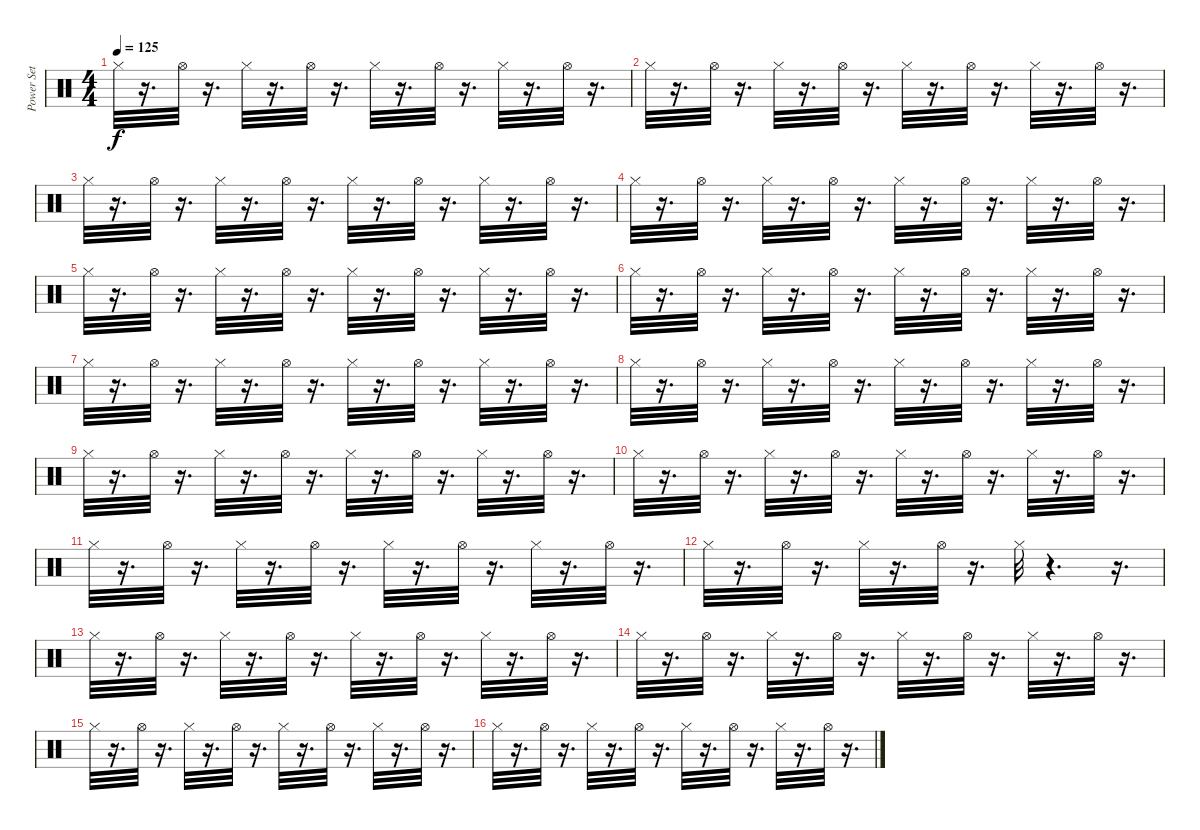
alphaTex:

\track ("Power Set" "Power Set") {instrument percussion}
\staff {score}
\articulation defaults
\ts (4 4)
\tempo 125
\clef neutral
\ks c "Hi-Hat (closed)".32{dy f}
r.16{d} "Hi-Hat (open)".32 r.16{d} "Hi-Hat (closed)".32 r.16{d} "Hi-Hat (open)".32 r.16{d} "Hi-Hat (closed)".32 r.16{d} "Hi-Hat (open)".32 r.16{d} "Hi-Hat (closed)".32 r.16{d} "Hi-Hat (open)".32 r.16{d} |
"Hi-Hat (closed)".32 r.16{d} "Hi-Hat (open)".32 r.16{d} "Hi-Hat (closed)".32 r.16{d} "Hi-Hat (open)".32 r.16{d} "Hi-Hat (closed)".32 r.16{d} "Hi-Hat (open)".32 r.16{d} "Hi-Hat (closed)".32 r.16{d} "Hi-Hat (open)".32 r.16{d} |
"Hi-Hat (closed)".32 r.16{d} "Hi-Hat (open)".32 r.16{d} "Hi-Hat (closed)".32 r.16{d} "Hi-Hat (open)".32 r.16{d} "Hi-Hat (closed)".32 r.16{d} "Hi-Hat (open)".32 r.16{d} "Hi-Hat (closed)".32 r.16{d} "Hi-Hat (open)".32 r.16{d} |
"Hi-Hat (closed)".32 r.16{d} "Hi-Hat (open)".32 r.16{d} "Hi-Hat (closed)".32 r.16{d} "Hi-Hat (open)".32 r.16{d} "Hi-Hat (closed)".32 r.16{d} "Hi-Hat (open)".32 r.16{d} "Hi-Hat (closed)".32 r.16{d} "Hi-Hat (open)".32 r.16{d} |
"Hi-Hat (closed)".32 r.16{d} "Hi-Hat (open)".32 r.16{d} "Hi-Hat (closed)".32 r.16{d} "Hi-Hat (open)".32 r.16{d} "Hi-Hat (closed)".32 r.16{d} "Hi-Hat (open)".32 r.16{d} "Hi-Hat (closed)".32 r.16{d} "Hi-Hat (open)".32 r.16{d} |
"Hi-Hat (closed)".32 r.16{d} "Hi-Hat (open)".32 r.16{d} "Hi-Hat (closed)".32 r.16{d} "Hi-Hat (open)".32 r.16{d} "Hi-Hat (closed)".32 r.16{d} "Hi-Hat (open)".32 r.16{d} "Hi-Hat (closed)".32 r.16{d} "Hi-Hat (open)".32 r.16{d} |
"Hi-Hat (closed)".32 r.16{d} "Hi-Hat (open)".32 r.16{d} "Hi-Hat (closed)".32 r.16{d} "Hi-Hat (open)".32 r.16{d} "Hi-Hat (closed)".32 r.16{d} "Hi-Hat (open)".32 r.16{d} "Hi-Hat (closed)".32 r.16{d} "Hi-Hat (open)".32 r.16{d} |
"Hi-Hat (closed)".32 r.16{d} "Hi-Hat (open)".32 r.16{d} "Hi-Hat (closed)".32 r.16{d} "Hi-Hat (open)".32 r.16{d} "Hi-Hat (closed)".32 r.16{d} "Hi-Hat (open)".32 r.16{d} "Hi-Hat (closed)".32 r.16{d} "Hi-Hat (open)".32 r.16{d} |
"Hi-Hat (closed)".32 r.16{d} "Hi-Hat (open)".32 r.16{d} "Hi-Hat (closed)".32 r.16{d} "Hi-Hat (open)".32 r.16{d} "Hi-Hat (closed)".32 r.16{d} "Hi-Hat (open)".32 r.16{d} "Hi-Hat (closed)".32 r.16{d} "Hi-Hat (open)".32 r.16{d} |
"Hi-Hat (closed)".32 r.16{d} "Hi-Hat (open)".32 r.16{d} "Hi-Hat (closed)".32 r.16{d} "Hi-Hat (open)".32 r.16{d} "Hi-Hat (closed)".32 r.16{d} "Hi-Hat (open)".32 r.16{d} "Hi-Hat (closed)".32 r.16{d} "Hi-Hat (open)".32 r.16{d} |
"Hi-Hat (closed)".32 r.16{d} "Hi-Hat (open)".32 r.16{d} "Hi-Hat (closed)".32 r.16{d} "Hi-Hat (open)".32 r.16{d} "Hi-Hat (closed)".32 r.16{d} "Hi-Hat (open)".32 r.16{d} "Hi-Hat (closed)".32 r.16{d} "Hi-Hat (open)".32 r.16{d} |
"Hi-Hat (closed)".32 r.16{d} "Hi-Hat (open)".32 r.16{d} "Hi-Hat (closed)".32 r.16{d} "Hi-Hat (open)".32 r.16{d} "Hi-Hat (closed)".32 r.4{d} r.16{d} |
"Hi-Hat (closed)".32 r.16{d} "Hi-Hat (open)".32 r.16{d} "Hi-Hat (closed)".32 r.16{d} "Hi-Hat (open)".32 r.16{d} "Hi-Hat (closed)".32 r.16{d} "Hi-Hat (open)".32 r.16{d} "Hi-Hat (closed)".32 r.16{d} "Hi-Hat (open)".32 r.16{d} |
"Hi-Hat (closed)".32 r.16{d} "Hi-Hat (open)".32 r.16{d} "Hi-Hat (closed)".32 r.16{d} "Hi-Hat (open)".32 r.16{d} "Hi-Hat (closed)".32 r.16{d} "Hi-Hat (open)".32 r.16{d} "Hi-Hat (closed)".32 r.16{d} "Hi-Hat (open)".32 r.16{d} |
"Hi-Hat (closed)".32 r.16{d} "Hi-Hat (open)".32 r.16{d} "Hi-Hat (closed)".32 r.16{d} "Hi-Hat (open)".32 r.16{d} "Hi-Hat (closed)".32 r.16{d} "Hi-Hat (open)".32 r.16{d} "Hi-Hat (closed)".32 r.16{d} "Hi-Hat (open)".32 r.16{d} |
"Hi-Hat (closed)".32 r.16{d} "Hi-Hat (open)".32 r.16{d} "Hi-Hat (closed)".32 r.16{d} "Hi-Hat (open)".32 r.16{d} "Hi-Hat (closed)".32 r.16{d} "Hi-Hat (open)".32 r.16{d} "Hi-Hat (closed)".32 r.16{d} "Hi-Hat (open)".32 r.16{d}
